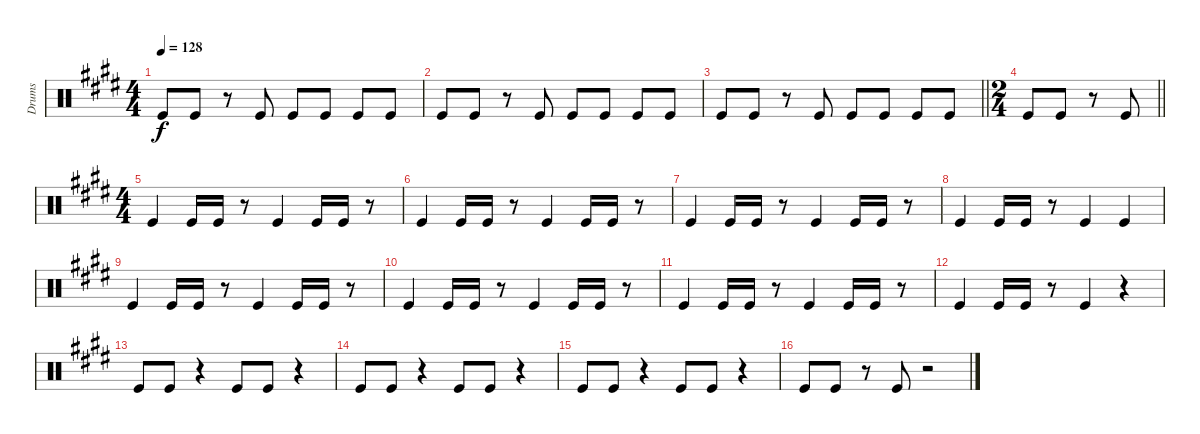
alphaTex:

\track ("Drums" "Drums") {instrument percussion}
\staff {score}
\articulation defaults
\ts (4 4)
\tempo 128
\clef neutral
\ks e "Kick (hit)".8{dy f} "Kick (hit)".8
r.8 "Kick (hit)".8 "Kick (hit)".8 "Kick (hit)".8 "Kick (hit)".8 "Kick (hit)".8 |
"Kick (hit)".8 "Kick (hit)".8 r.8 "Kick (hit)".8 "Kick (hit)".8 "Kick (hit)".8 "Kick (hit)".8 "Kick (hit)".8 |
\barLineRight lightlight "Kick (hit)".8 "Kick (hit)".8
r.8 "Kick (hit)".8 "Kick (hit)".8 "Kick (hit)".8 "Kick (hit)".8 "Kick (hit)".8 |
\ts (2 4)
\barLineRight lightlight "Kick (hit)".8 "Kick (hit)".8
r.8 "Kick (hit)".8 |
\ts (4 4)
"Kick (hit)".4 "Kick (hit)".16 "Kick (hit)".16 r.8 "Kick (hit)".4 "Kick (hit)".16 "Kick (hit)".16 r.8 |
"Kick (hit)".4 "Kick (hit)".16 "Kick (hit)".16 r.8 "Kick (hit)".4 "Kick (hit)".16 "Kick (hit)".16 r.8 |
"Kick (hit)".4 "Kick (hit)".16 "Kick (hit)".16 r.8 "Kick (hit)".4 "Kick (hit)".16 "Kick (hit)".16 r.8 |
"Kick (hit)".4 "Kick (hit)".16 "Kick (hit)".16 r.8 "Kick (hit)".4 "Kick (hit)".4 |
"Kick (hit)".4 "Kick (hit)".16 "Kick (hit)".16 r.8 "Kick (hit)".4 "Kick (hit)".16 "Kick (hit)".16 r.8 |
"Kick (hit)".4 "Kick (hit)".16 "Kick (hit)".16 r.8 "Kick (hit)".4 "Kick (hit)".16 "Kick (hit)".16 r.8 |
"Kick (hit)".4 "Kick (hit)".16 "Kick (hit)".16 r.8 "Kick (hit)".4 "Kick (hit)".16 "Kick (hit)".16 r.8 |
"Kick (hit)".4 "Kick (hit)".16 "Kick (hit)".16 r.8 "Kick (hit)".4 r.4 |
"Kick (hit)".8 "Kick (hit)".8 r.4 "Kick (hit)".8 "Kick (hit)".8 r.4 |
"Kick (hit)".8 "Kick (hit)".8 r.4 "Kick (hit)".8 "Kick (hit)".8 r.4 |
"Kick (hit)".8 "Kick (hit)".8 r.4 "Kick (hit)".8 "Kick (hit)".8 r.4 |
"Kick (hit)".8 "Kick (hit)".8 r.8 "Kick (hit)".8 r.2
